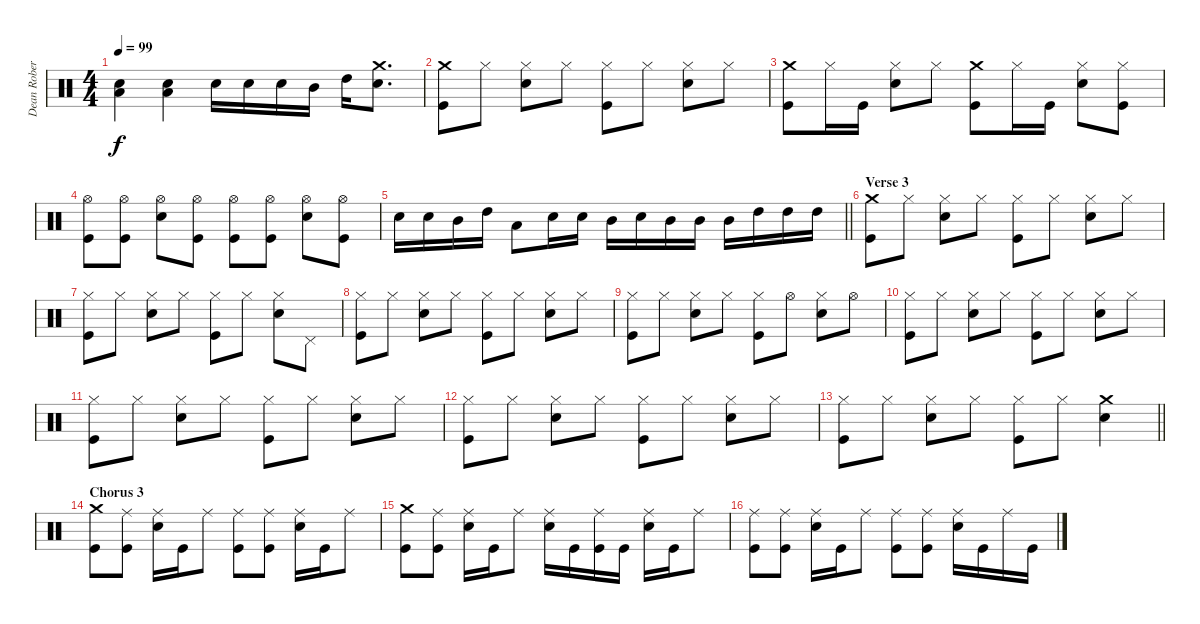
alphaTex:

\track ("Dean Roberts" "Dean Rober") {instrument percussion}
\staff {score}
\articulation defaults
\ts (4 4)
\tempo 99
\clef neutral
\ks c
("Low Floor Tom (hit)" "Electric Snare (hit)").4{dy f} ("Low Floor Tom (hit)" "Electric Snare (hit)").4 "Electric Snare (hit)".16 "Electric Snare (hit)".16 "Electric Snare (hit)".16 "Mid Tom (hit)".16 "High Tom (hit)".16 ("Crash medium (hit)" "Electric Snare (hit)").8{d} |
("Crash medium (hit)" "Kick (hit)").8 "Hi-Hat (closed)".8 ("Hi-Hat (closed)" "Electric Snare (hit)").8 "Hi-Hat (closed)".8 ("Hi-Hat (closed)" "Kick (hit)").8 "Hi-Hat (closed)".8 ("Hi-Hat (closed)" "Electric Snare (hit)").8 "Hi-Hat (closed)".8 |
("Crash medium (hit)" "Kick (hit)").8 "Hi-Hat (closed)".16 "Kick (hit)".16 ("Hi-Hat (closed)" "Electric Snare (hit)").8 "Hi-Hat (closed)".8 ("Crash medium (hit)" "Kick (hit)").8 "Hi-Hat (closed)".16 "Kick (hit)".16 ("Hi-Hat (closed)" "Electric Snare (hit)").8 ("Hi-Hat (closed)" "Kick (hit)").8 |
("Hi-Hat (open)" "Kick (hit)").8 ("Hi-Hat (open)" "Kick (hit)").8 ("Hi-Hat (open)" "Electric Snare (hit)").8 ("Hi-Hat (open)" "Kick (hit)").8 ("Hi-Hat (open)" "Kick (hit)").8 ("Hi-Hat (open)" "Kick (hit)").8 ("Hi-Hat (open)" "Electric Snare (hit)").8 ("Hi-Hat (open)" "Kick (hit)").8 |
\barLineRight lightlight "Electric Snare (hit)".16 "Electric Snare (hit)".16 "Mid Tom (hit)".16 "High Tom (hit)".16 "Low Floor Tom (hit)".8 "Electric Snare (hit)".16 "Electric Snare (hit)".16 "Mid Tom (hit)".16 "Electric Snare (hit)".16 "Mid Tom (hit)".16 "Mid Tom (hit)".16 "Mid Tom (hit)".16 "High Tom (hit)".16 "High Tom (hit)".16 "High Tom (hit)".16
|
\section ("" "Verse 3")
("Crash medium (hit)" "Kick (hit)").8 "Hi-Hat (closed)".8 ("Hi-Hat (closed)" "Electric Snare (hit)").8 "Hi-Hat (closed)".8 ("Hi-Hat (closed)" "Kick (hit)").8 "Hi-Hat (closed)".8 ("Hi-Hat (closed)" "Electric Snare (hit)").8 "Hi-Hat (closed)".8 |
("Hi-Hat (closed)" "Kick (hit)").8 "Hi-Hat (closed)".8 ("Hi-Hat (closed)" "Electric Snare (hit)").8 "Hi-Hat (closed)".8 ("Hi-Hat (closed)" "Kick (hit)").8 "Hi-Hat (closed)".8 ("Hi-Hat (closed)" "Electric Snare (hit)").8 "Pedal Hi-Hat (hit)".8 |
("Hi-Hat (closed)" "Kick (hit)").8 "Hi-Hat (closed)".8 ("Hi-Hat (closed)" "Electric Snare (hit)").8 "Hi-Hat (closed)".8 ("Hi-Hat (closed)" "Kick (hit)").8 "Hi-Hat (closed)".8 ("Hi-Hat (closed)" "Electric Snare (hit)").8 "Hi-Hat (closed)".8 |
("Hi-Hat (closed)" "Kick (hit)").8 "Hi-Hat (closed)".8 ("Hi-Hat (closed)" "Electric Snare (hit)").8 "Hi-Hat (closed)".8 ("Hi-Hat (closed)" "Kick (hit)").8 "Hi-Hat (open)".8 ("Hi-Hat (closed)" "Electric Snare (hit)").8 "Hi-Hat (open)".8 |
("Hi-Hat (closed)" "Kick (hit)").8 "Hi-Hat (closed)".8 ("Hi-Hat (closed)" "Electric Snare (hit)").8 "Hi-Hat (closed)".8 ("Hi-Hat (closed)" "Kick (hit)").8 "Hi-Hat (closed)".8 ("Hi-Hat (closed)" "Electric Snare (hit)").8 "Hi-Hat (closed)".8 |
("Hi-Hat (closed)" "Kick (hit)").8 "Hi-Hat (closed)".8 ("Hi-Hat (closed)" "Electric Snare (hit)").8 "Hi-Hat (closed)".8 ("Hi-Hat (closed)" "Kick (hit)").8 "Hi-Hat (closed)".8 ("Hi-Hat (closed)" "Electric Snare (hit)").8 "Hi-Hat (closed)".8 |
("Hi-Hat (closed)" "Kick (hit)").8 "Hi-Hat (closed)".8 ("Hi-Hat (closed)" "Electric Snare (hit)").8 "Hi-Hat (closed)".8 ("Hi-Hat (closed)" "Kick (hit)").8 "Hi-Hat (closed)".8 ("Hi-Hat (closed)" "Electric Snare (hit)").8 "Hi-Hat (closed)".8 |
\barLineRight lightlight
("Hi-Hat (closed)" "Kick (hit)").8 "Hi-Hat (closed)".8 ("Hi-Hat (closed)" "Electric Snare (hit)").8 "Hi-Hat (closed)".8 ("Hi-Hat (closed)" "Kick (hit)").8 "Hi-Hat (closed)".8 ("Crash medium (hit)" "Electric Snare (hit)").4 |
\section ("" "Chorus 3")
("Crash medium (hit)" "Kick (hit)").8 ("Ride (middle)" "Kick (hit)").8 ("Ride (middle)" "Electric Snare (hit)").16 "Kick (hit)".16 "Ride (middle)".8 ("Ride (middle)" "Kick (hit)").8 ("Ride (middle)" "Kick (hit)").8 ("Ride (middle)" "Electric Snare (hit)").16 "Kick (hit)".16 "Ride (middle)".8 |
("Crash medium (hit)" "Kick (hit)").8 ("Ride (middle)" "Kick (hit)").8 ("Ride (middle)" "Electric Snare (hit)").16 "Kick (hit)".16 "Ride (middle)".8 ("Ride (middle)" "Electric Snare (hit)").16 "Kick (hit)".16 ("Ride (middle)" "Kick (hit)").16 "Kick (hit)".16 ("Ride (middle)" "Electric Snare (hit)").16 "Kick (hit)".16 "Ride (middle)".8 |
("Ride (middle)" "Kick (hit)").8 ("Ride (middle)" "Kick (hit)").8 ("Ride (middle)" "Electric Snare (hit)").16 "Kick (hit)".16 "Ride (middle)".8 ("Ride (middle)" "Kick (hit)").8 ("Ride (middle)" "Kick (hit)").8 ("Ride (middle)" "Electric Snare (hit)").16 "Kick (hit)".16 "Ride (middle)".16 "Kick (hit)".16
